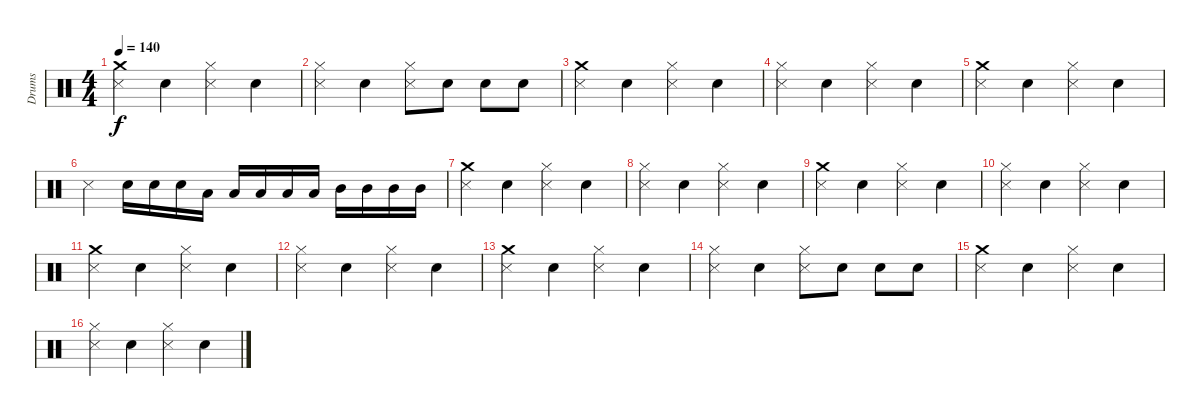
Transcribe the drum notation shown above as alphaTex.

\track ("Drums" "Drums") {instrument percussion}
\staff {score}
\articulation defaults
\ts (4 4)
\tempo 140
\clef neutral
\ks c
("Crash medium (hit)" "Metronome (hit)").4{dy f} "Electric Snare (hit)".4 ("Hi-Hat (closed)" "Metronome (hit)").4 "Electric Snare (hit)".4 |
("Hi-Hat (closed)" "Metronome (hit)").4 "Electric Snare (hit)".4 ("Hi-Hat (closed)" "Metronome (hit)").8 "Electric Snare (hit)".8 "Electric Snare (hit)".8 "Electric Snare (hit)".8 |
("Crash medium (hit)" "Metronome (hit)").4 "Electric Snare (hit)".4 ("Hi-Hat (closed)" "Metronome (hit)").4 "Electric Snare (hit)".4 |
("Hi-Hat (closed)" "Metronome (hit)").4 "Electric Snare (hit)".4 ("Hi-Hat (closed)" "Metronome (hit)").4 "Electric Snare (hit)".4 |
("Crash medium (hit)" "Metronome (hit)").4 "Electric Snare (hit)".4 ("Hi-Hat (closed)" "Metronome (hit)").4 "Electric Snare (hit)".4 |
"Metronome (hit)".4 "Electric Snare (hit)".16 "Electric Snare (hit)".16 "Electric Snare (hit)".16 "Low Tom (hit)".16 "Low Tom (hit)".16 "Low Tom (hit)".16 "Low Tom (hit)".16 "Low Tom (hit)".16 "Mid Tom (hit)".16 "Mid Tom (hit)".16 "Mid Tom (hit)".16 "Mid Tom (hit)".16 |
("Crash medium (hit)" "Metronome (hit)").4 "Electric Snare (hit)".4 ("Hi-Hat (closed)" "Metronome (hit)").4 "Electric Snare (hit)".4 |
("Hi-Hat (closed)" "Metronome (hit)").4 "Electric Snare (hit)".4 ("Hi-Hat (closed)" "Metronome (hit)").4 "Electric Snare (hit)".4 |
("Crash medium (hit)" "Metronome (hit)").4 "Electric Snare (hit)".4 ("Hi-Hat (closed)" "Metronome (hit)").4 "Electric Snare (hit)".4 |
("Hi-Hat (closed)" "Metronome (hit)").4 "Electric Snare (hit)".4 ("Hi-Hat (closed)" "Metronome (hit)").4 "Electric Snare (hit)".4 |
("Crash medium (hit)" "Metronome (hit)").4 "Electric Snare (hit)".4 ("Hi-Hat (closed)" "Metronome (hit)").4 "Electric Snare (hit)".4 |
("Hi-Hat (closed)" "Metronome (hit)").4 "Electric Snare (hit)".4 ("Hi-Hat (closed)" "Metronome (hit)").4 "Electric Snare (hit)".4 |
("Crash medium (hit)" "Metronome (hit)").4 "Electric Snare (hit)".4 ("Hi-Hat (closed)" "Metronome (hit)").4 "Electric Snare (hit)".4 |
("Hi-Hat (closed)" "Metronome (hit)").4 "Electric Snare (hit)".4 ("Hi-Hat (closed)" "Metronome (hit)").8 "Electric Snare (hit)".8 "Electric Snare (hit)".8 "Electric Snare (hit)".8 |
("Crash medium (hit)" "Metronome (hit)").4 "Electric Snare (hit)".4 ("Hi-Hat (closed)" "Metronome (hit)").4 "Electric Snare (hit)".4 |
("Hi-Hat (closed)" "Metronome (hit)").4 "Electric Snare (hit)".4 ("Hi-Hat (closed)" "Metronome (hit)").4 "Electric Snare (hit)".4
